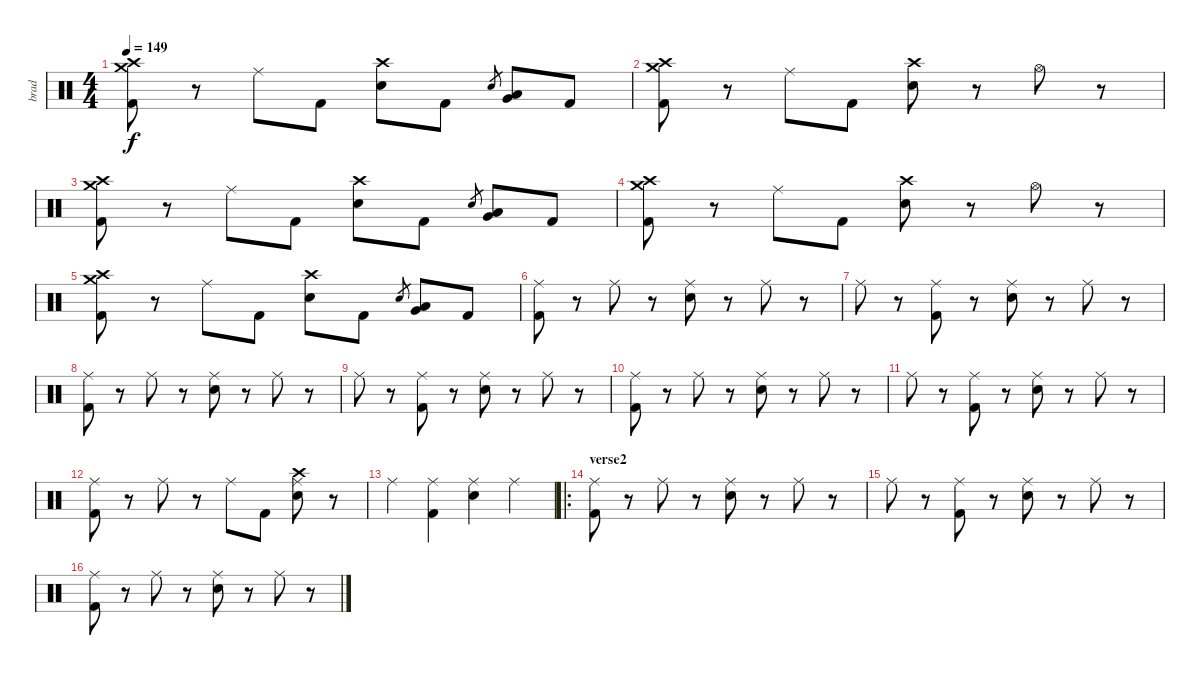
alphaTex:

\track ("brad" "brad") {instrument percussion}
\staff {score}
\articulation defaults
\ts (4 4)
\tempo 149
\clef neutral
\ks c
("Crash medium (hit)" "Crash high (hit)" "Kick (hit) 2").8{dy f} r.8 "Ride (middle)".8 "Kick (hit) 2".8 ("Crash high (hit)" "Electric Snare (hit)").8 "Kick (hit) 2".8 "Electric Snare (hit)".8{gr} ("Very Low Tom (hit)" "Low Floor Tom (hit)").8 "Kick (hit) 2".8 |
("Crash medium (hit)" "Crash high (hit)" "Kick (hit) 2").8 r.8 "Ride (middle)".8 "Kick (hit) 2".8 ("Crash high (hit)" "Electric Snare (hit)").8 r.8 "Hi-Hat (open)".8 r.8 |
("Crash medium (hit)" "Crash high (hit)" "Kick (hit) 2").8 r.8 "Ride (middle)".8 "Kick (hit) 2".8 ("Crash high (hit)" "Electric Snare (hit)").8 "Kick (hit) 2".8 "Electric Snare (hit)".8{gr} ("Very Low Tom (hit)" "Low Floor Tom (hit)").8 "Kick (hit) 2".8 |
("Crash medium (hit)" "Crash high (hit)" "Kick (hit) 2").8 r.8 "Ride (middle)".8 "Kick (hit) 2".8 ("Crash high (hit)" "Electric Snare (hit)").8 r.8 "Hi-Hat (open)".8 r.8 |
("Crash medium (hit)" "Crash high (hit)" "Kick (hit) 2").8 r.8 "Ride (middle)".8 "Kick (hit) 2".8 ("Crash high (hit)" "Electric Snare (hit)").8 "Kick (hit) 2".8 "Electric Snare (hit)".8{gr} ("Very Low Tom (hit)" "Low Floor Tom (hit)").8 "Kick (hit) 2".8 |
("Ride (middle)" "Kick (hit) 2").8 r.8 "Ride (middle)".8 r.8 ("Ride (middle)" "Electric Snare (hit)").8 r.8 "Ride (middle)".8 r.8 |
"Ride (middle)".8 r.8 ("Ride (middle)" "Kick (hit) 2").8 r.8 ("Ride (middle)" "Electric Snare (hit)").8 r.8 "Ride (middle)".8 r.8 |
("Ride (middle)" "Kick (hit) 2").8 r.8 "Ride (middle)".8 r.8 ("Ride (middle)" "Electric Snare (hit)").8 r.8 "Ride (middle)".8 r.8 |
"Ride (middle)".8 r.8 ("Ride (middle)" "Kick (hit) 2").8 r.8 ("Ride (middle)" "Electric Snare (hit)").8 r.8 "Ride (middle)".8 r.8 |
("Ride (middle)" "Kick (hit) 2").8 r.8 "Ride (middle)".8 r.8 ("Ride (middle)" "Electric Snare (hit)").8 r.8 "Ride (middle)".8 r.8 |
"Ride (middle)".8 r.8 ("Ride (middle)" "Kick (hit) 2").8 r.8 ("Ride (middle)" "Electric Snare (hit)").8 r.8 "Ride (middle)".8 r.8 |
("Ride (middle)" "Kick (hit) 2").8 r.8 "Ride (middle)".8 r.8 "Ride (middle)".8 "Kick (hit) 2".8 ("Crash high (hit)" "Ride (middle)" "Electric Snare (hit)").8 r.8 |
"Ride (middle)".4 ("Ride (middle)" "Kick (hit) 2").4 ("Ride (middle)" "Electric Snare (hit)").4 "Ride (middle)".4 |
\ro
\section ("" "verse2")
("Ride (middle)" "Kick (hit) 2").8 r.8 "Ride (middle)".8 r.8 ("Ride (middle)" "Electric Snare (hit)").8 r.8 "Ride (middle)".8 r.8 |
"Ride (middle)".8 r.8 ("Ride (middle)" "Kick (hit) 2").8 r.8 ("Ride (middle)" "Electric Snare (hit)").8 r.8 "Ride (middle)".8 r.8 |
("Ride (middle)" "Kick (hit) 2").8 r.8 "Ride (middle)".8 r.8 ("Ride (middle)" "Electric Snare (hit)").8 r.8 "Ride (middle)".8 r.8
